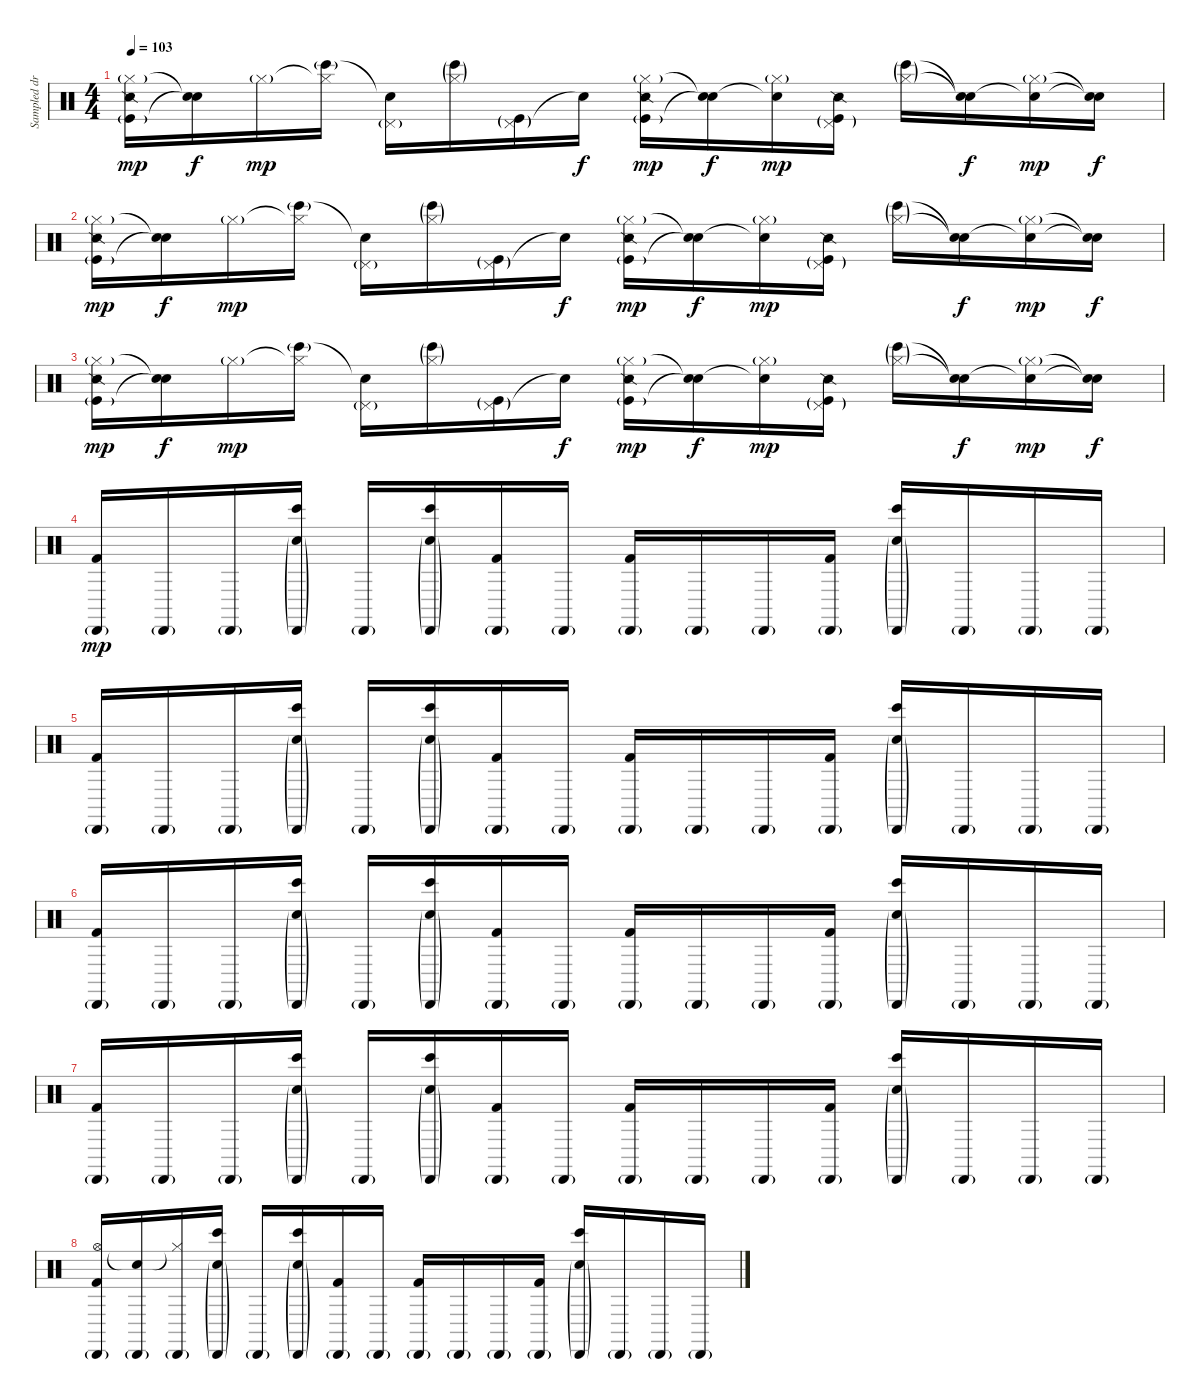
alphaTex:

\track ("Sampled drums (Rob with Joe)" "Sampled dr") {instrument percussion}
\staff {score}
\articulation defaults
\ts (4 4)
\tempo 103
\clef neutral
\ks c
("Hi-Hat (closed)"{g} "Kick (hit)"{g} "Snare (side stick) 2").16{dy mp volume 5} ("Snare (hit)"{t} "Snare (hit)"{t}).16{dy f} "Hi-Hat (closed)"{g}.16{dy mp} ("Hi-Hat (closed)"{t} "Bongo High (hit)"{g}).16 ("Pedal Hi-Hat (hit)"{g} "Snare (hit)"{t}).16 ("Hi-Hat (closed)"{g} "Bongo High (hit)"{g}).16 ("Pedal Hi-Hat (hit)"{g} "Kick (hit)"{g}).16 "Snare (hit)"{t}.16{dy f} ("Hi-Hat (closed)"{g} "Kick (hit)"{g} "Snare (side stick) 2").16{dy mp} ("Snare (hit)"{t} "Snare (hit)"{t}).16{dy f} ("Hi-Hat (closed)"{g} "Snare (hit)"{t}).16{dy mp} ("Pedal Hi-Hat (hit)"{g} "Kick (hit)"{g} "Snare (side stick) 2").16 ("Hi-Hat (closed)"{g} "Bongo High (hit)"{g}).16 ("Snare (hit)"{t} "Snare (hit)"{t}).16{dy f} ("Hi-Hat (closed)"{g} "Snare (hit)"{t}).16{dy mp} ("Snare (hit)"{t} "Snare (hit)"{t}).16{dy f} |
("Hi-Hat (closed)"{g} "Kick (hit)"{g} "Snare (side stick) 2").16{dy mp volume 5} ("Snare (hit)"{t} "Snare (hit)"{t}).16{dy f} "Hi-Hat (closed)"{g}.16{dy mp} ("Hi-Hat (closed)"{t} "Bongo High (hit)"{g}).16 ("Pedal Hi-Hat (hit)"{g} "Snare (hit)"{t}).16 ("Hi-Hat (closed)"{g} "Bongo High (hit)"{g}).16 ("Pedal Hi-Hat (hit)"{g} "Kick (hit)"{g}).16 "Snare (hit)"{t}.16{dy f} ("Hi-Hat (closed)"{g} "Kick (hit)"{g} "Snare (side stick) 2").16{dy mp} ("Snare (hit)"{t} "Snare (hit)"{t}).16{dy f} ("Hi-Hat (closed)"{g} "Snare (hit)"{t}).16{dy mp} ("Pedal Hi-Hat (hit)"{g} "Kick (hit)"{g} "Snare (side stick) 2").16 ("Hi-Hat (closed)"{g} "Bongo High (hit)"{g}).16 ("Snare (hit)"{t} "Snare (hit)"{t}).16{dy f} ("Hi-Hat (closed)"{g} "Snare (hit)"{t}).16{dy mp} ("Snare (hit)"{t} "Snare (hit)"{t}).16{dy f} |
("Hi-Hat (closed)"{g} "Kick (hit)"{g} "Snare (side stick) 2").16{dy mp volume 5} ("Snare (hit)"{t} "Snare (hit)"{t}).16{dy f} "Hi-Hat (closed)"{g}.16{dy mp} ("Hi-Hat (closed)"{t} "Bongo High (hit)"{g}).16 ("Pedal Hi-Hat (hit)"{g} "Snare (hit)"{t}).16 ("Hi-Hat (closed)"{g} "Bongo High (hit)"{g}).16 ("Pedal Hi-Hat (hit)"{g} "Kick (hit)"{g}).16 "Snare (hit)"{t}.16{dy f} ("Hi-Hat (closed)"{g} "Kick (hit)"{g} "Snare (side stick) 2").16{dy mp} ("Snare (hit)"{t} "Snare (hit)"{t}).16{dy f} ("Hi-Hat (closed)"{g} "Snare (hit)"{t}).16{dy mp} ("Pedal Hi-Hat (hit)"{g} "Kick (hit)"{g} "Snare (side stick) 2").16 ("Hi-Hat (closed)"{g} "Bongo High (hit)"{g}).16 ("Snare (hit)"{t} "Snare (hit)"{t}).16{dy f} ("Hi-Hat (closed)"{g} "Snare (hit)"{t}).16{dy mp} ("Snare (hit)"{t} "Snare (hit)"{t}).16{dy f} |
("Cabasa (hit)"{g} "Kick (hit) 2").16{dy mp volume 6} "Cabasa (hit)"{g}.16 "Cabasa (hit)"{g}.16 ("Cabasa (hit)"{g} "Bongo High (hit)" "Snare (hit) 2"{g}).16 "Cabasa (hit)"{g}.16 ("Cabasa (hit)"{g} "Bongo High (hit)" "Snare (hit) 2"{g}).16 ("Cabasa (hit)"{g} "Kick (hit) 2").16 "Cabasa (hit)"{g}.16 ("Cabasa (hit)"{g} "Kick (hit) 2").16 "Cabasa (hit)"{g}.16 "Cabasa (hit)"{g}.16 ("Cabasa (hit)"{g} "Kick (hit) 2").16 ("Cabasa (hit)"{g} "Bongo High (hit)" "Snare (hit) 2"{g}).16 "Cabasa (hit)"{g}.16 "Cabasa (hit)"{g}.16 "Cabasa (hit)"{g}.16 |
("Cabasa (hit)"{g} "Kick (hit) 2").16{volume 6} "Cabasa (hit)"{g}.16 "Cabasa (hit)"{g}.16 ("Cabasa (hit)"{g} "Bongo High (hit)" "Snare (hit) 2"{g}).16 "Cabasa (hit)"{g}.16 ("Cabasa (hit)"{g} "Bongo High (hit)" "Snare (hit) 2"{g}).16 ("Cabasa (hit)"{g} "Kick (hit) 2").16 "Cabasa (hit)"{g}.16 ("Cabasa (hit)"{g} "Kick (hit) 2").16 "Cabasa (hit)"{g}.16 "Cabasa (hit)"{g}.16 ("Cabasa (hit)"{g} "Kick (hit) 2").16 ("Cabasa (hit)"{g} "Bongo High (hit)" "Snare (hit) 2"{g}).16 "Cabasa (hit)"{g}.16 "Cabasa (hit)"{g}.16 "Cabasa (hit)"{g}.16 |
("Cabasa (hit)"{g} "Kick (hit) 2").16{volume 6} "Cabasa (hit)"{g}.16 "Cabasa (hit)"{g}.16 ("Cabasa (hit)"{g} "Bongo High (hit)" "Snare (hit) 2"{g}).16 "Cabasa (hit)"{g}.16 ("Cabasa (hit)"{g} "Bongo High (hit)" "Snare (hit) 2"{g}).16 ("Cabasa (hit)"{g} "Kick (hit) 2").16 "Cabasa (hit)"{g}.16 ("Cabasa (hit)"{g} "Kick (hit) 2").16 "Cabasa (hit)"{g}.16 "Cabasa (hit)"{g}.16 ("Cabasa (hit)"{g} "Kick (hit) 2").16 ("Cabasa (hit)"{g} "Bongo High (hit)" "Snare (hit) 2"{g}).16 "Cabasa (hit)"{g}.16 "Cabasa (hit)"{g}.16 "Cabasa (hit)"{g}.16 |
("Cabasa (hit)"{g} "Kick (hit) 2").16{volume 6} "Cabasa (hit)"{g}.16 "Cabasa (hit)"{g}.16 ("Cabasa (hit)"{g} "Bongo High (hit)" "Snare (hit) 2"{g}).16 "Cabasa (hit)"{g}.16 ("Cabasa (hit)"{g} "Bongo High (hit)" "Snare (hit) 2"{g}).16 ("Cabasa (hit)"{g} "Kick (hit) 2").16 "Cabasa (hit)"{g}.16 ("Cabasa (hit)"{g} "Kick (hit) 2").16 "Cabasa (hit)"{g}.16 "Cabasa (hit)"{g}.16 ("Cabasa (hit)"{g} "Kick (hit) 2").16 ("Cabasa (hit)"{g} "Bongo High (hit)" "Snare (hit) 2"{g}).16 "Cabasa (hit)"{g}.16 "Cabasa (hit)"{g}.16 "Cabasa (hit)"{g}.16 |
("Cabasa (hit)"{g} "Hi-Hat (open)" "Kick (hit) 2").16{volume 6} ("Cabasa (hit)"{g} "Snare (hit)"{t}).16 ("Cabasa (hit)"{g} "Hi-Hat (closed)"{t}).16 ("Cabasa (hit)"{g} "Bongo High (hit)" "Snare (hit) 2"{g}).16 "Cabasa (hit)"{g}.16 ("Cabasa (hit)"{g} "Bongo High (hit)" "Snare (hit) 2"{g}).16 ("Cabasa (hit)"{g} "Kick (hit) 2").16 "Cabasa (hit)"{g}.16 ("Cabasa (hit)"{g} "Kick (hit) 2").16 "Cabasa (hit)"{g}.16 "Cabasa (hit)"{g}.16 ("Cabasa (hit)"{g} "Kick (hit) 2").16 ("Cabasa (hit)"{g} "Bongo High (hit)" "Snare (hit) 2"{g}).16 "Cabasa (hit)"{g}.16 "Cabasa (hit)"{g}.16 "Cabasa (hit)"{g}.16
